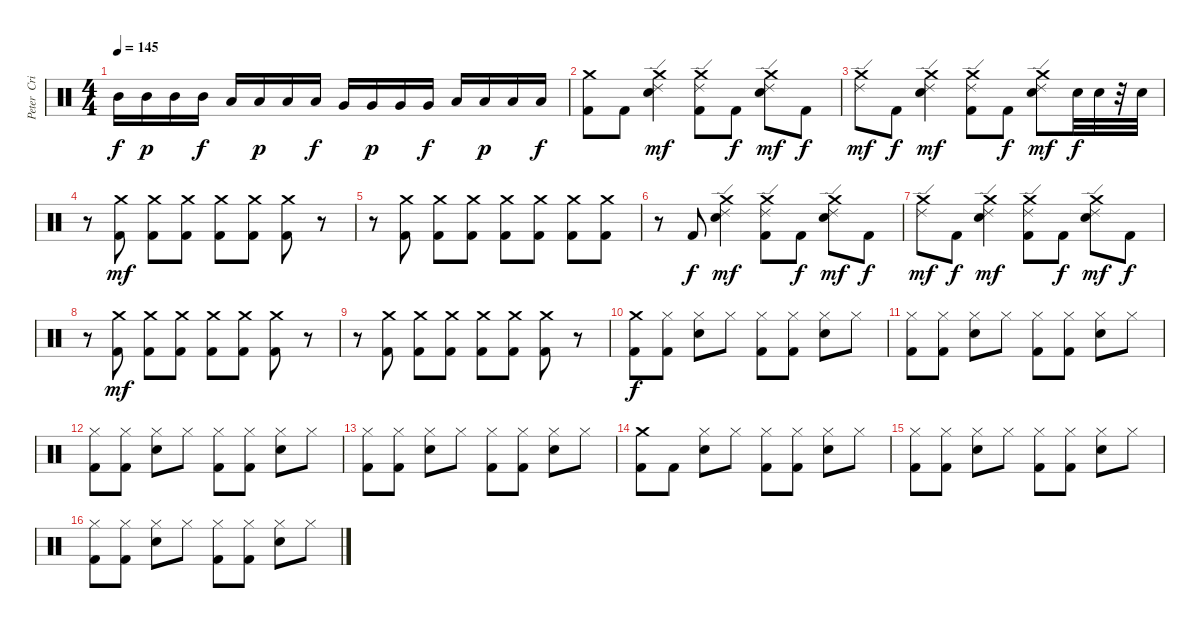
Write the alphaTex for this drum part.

\track ("Peter  Criss [Drums]" "Peter  Cri") {instrument percussion}
\staff {score}
\articulation defaults
\ts (4 4)
\tempo 145
\clef neutral
\ks c "Mid Tom (hit)".16{dy f} "Mid Tom (hit)".16{dy p} "Mid Tom (hit)".16 "Mid Tom (hit)".16{dy f} "Low Tom (hit)".16 "Low Tom (hit)".16{dy p} "Low Tom (hit)".16 "Low Tom (hit)".16{dy f} "Very Low Tom (hit)".16 "Very Low Tom (hit)".16{dy p} "Very Low Tom (hit)".16 "Very Low Tom (hit)".16{dy f} "Low Floor Tom (hit)".16 "Low Floor Tom (hit)".16{dy p} "Low Floor Tom (hit)".16 "Low Floor Tom (hit)".16{dy f}
|
("Crash medium (hit)" "Kick (hit) 2").8 "Kick (hit) 2".8 ("Ride (edge) 2" "Crash medium (hit)" "Electric Snare (hit)").4{dy mf} ("Ride (edge) 2" "Crash medium (hit)" "Kick (hit) 2").8 "Kick (hit) 2".8{dy f} ("Ride (edge) 2" "Crash medium (hit)" "Electric Snare (hit)").8{dy mf} "Kick (hit) 2".8{dy f} |
("Ride (edge) 2" "Crash medium (hit)").8{dy mf} "Kick (hit) 2".8{dy f} ("Ride (edge) 2" "Crash medium (hit)" "Electric Snare (hit)").4{dy mf} ("Ride (edge) 2" "Crash medium (hit)" "Kick (hit) 2").8 "Kick (hit) 2".8{dy f} ("Ride (edge) 2" "Crash medium (hit)" "Electric Snare (hit)").8{dy mf} "Electric Snare (hit)".32{dy f} "Electric Snare (hit)".32 r.32 "Electric Snare (hit)".32 |
r.8 ("Crash medium (hit)" "Kick (hit) 2").8{dy mf} ("Crash medium (hit)" "Kick (hit) 2").8 ("Crash medium (hit)" "Kick (hit) 2").8 ("Crash medium (hit)" "Kick (hit) 2").8 ("Crash medium (hit)" "Kick (hit) 2").8 ("Crash medium (hit)" "Kick (hit) 2").8 r.8 |
r.8 ("Crash medium (hit)" "Kick (hit) 2").8 ("Crash medium (hit)" "Kick (hit) 2").8 ("Crash medium (hit)" "Kick (hit) 2").8 ("Crash medium (hit)" "Kick (hit) 2").8 ("Crash medium (hit)" "Kick (hit) 2").8 ("Crash medium (hit)" "Kick (hit) 2").8 ("Crash medium (hit)" "Kick (hit) 2").8 |
r.8 "Kick (hit) 2".8{dy f} ("Ride (edge) 2" "Crash medium (hit)" "Electric Snare (hit)").4{dy mf} ("Ride (edge) 2" "Crash medium (hit)" "Kick (hit) 2").8 "Kick (hit) 2".8{dy f} ("Ride (edge) 2" "Crash medium (hit)" "Electric Snare (hit)").8{dy mf} "Kick (hit) 2".8{dy f} |
("Ride (edge) 2" "Crash medium (hit)").8{dy mf} "Kick (hit) 2".8{dy f} ("Ride (edge) 2" "Crash medium (hit)" "Electric Snare (hit)").4{dy mf} ("Ride (edge) 2" "Crash medium (hit)" "Kick (hit) 2").8 "Kick (hit) 2".8{dy f} ("Ride (edge) 2" "Crash medium (hit)" "Electric Snare (hit)").8{dy mf} "Kick (hit) 2".8{dy f} |
r.8 ("Crash medium (hit)" "Kick (hit) 2").8{dy mf} ("Crash medium (hit)" "Kick (hit) 2").8 ("Crash medium (hit)" "Kick (hit) 2").8 ("Crash medium (hit)" "Kick (hit) 2").8 ("Crash medium (hit)" "Kick (hit) 2").8 ("Crash medium (hit)" "Kick (hit) 2").8 r.8 |
r.8 ("Crash medium (hit)" "Kick (hit) 2").8 ("Crash medium (hit)" "Kick (hit) 2").8 ("Crash medium (hit)" "Kick (hit) 2").8 ("Crash medium (hit)" "Kick (hit) 2").8 ("Crash medium (hit)" "Kick (hit) 2").8 ("Crash medium (hit)" "Kick (hit) 2").8 r.8 |
("Crash medium (hit)" "Kick (hit) 2").8{dy f} ("Hi-Hat (closed)" "Kick (hit) 2").8 ("Hi-Hat (closed)" "Electric Snare (hit)").8 "Hi-Hat (closed)".8 ("Hi-Hat (closed)" "Kick (hit) 2").8 ("Hi-Hat (closed)" "Kick (hit) 2").8 ("Hi-Hat (closed)" "Electric Snare (hit)").8 "Hi-Hat (closed)".8 |
("Hi-Hat (closed)" "Kick (hit) 2").8 ("Hi-Hat (closed)" "Kick (hit) 2").8 ("Hi-Hat (closed)" "Electric Snare (hit)").8 "Hi-Hat (closed)".8 ("Hi-Hat (closed)" "Kick (hit) 2").8 ("Hi-Hat (closed)" "Kick (hit) 2").8 ("Hi-Hat (closed)" "Electric Snare (hit)").8 "Hi-Hat (closed)".8 |
("Hi-Hat (closed)" "Kick (hit) 2").8 ("Hi-Hat (closed)" "Kick (hit) 2").8 ("Hi-Hat (closed)" "Electric Snare (hit)").8 "Hi-Hat (closed)".8 ("Hi-Hat (closed)" "Kick (hit) 2").8 ("Hi-Hat (closed)" "Kick (hit) 2").8 ("Hi-Hat (closed)" "Electric Snare (hit)").8 "Hi-Hat (closed)".8 |
("Hi-Hat (closed)" "Kick (hit) 2").8 ("Hi-Hat (closed)" "Kick (hit) 2").8 ("Hi-Hat (closed)" "Electric Snare (hit)").8 "Hi-Hat (closed)".8 ("Hi-Hat (closed)" "Kick (hit) 2").8 ("Hi-Hat (closed)" "Kick (hit) 2").8 ("Hi-Hat (closed)" "Electric Snare (hit)").8 "Hi-Hat (closed)".8 |
("Crash medium (hit)" "Kick (hit) 2").8 "Kick (hit) 2".8 ("Hi-Hat (closed)" "Electric Snare (hit)").8 "Hi-Hat (closed)".8 ("Hi-Hat (closed)" "Kick (hit) 2").8 ("Hi-Hat (closed)" "Kick (hit) 2").8 ("Hi-Hat (closed)" "Electric Snare (hit)").8 "Hi-Hat (closed)".8 |
("Hi-Hat (closed)" "Kick (hit) 2").8 ("Hi-Hat (closed)" "Kick (hit) 2").8 ("Hi-Hat (closed)" "Electric Snare (hit)").8 "Hi-Hat (closed)".8 ("Hi-Hat (closed)" "Kick (hit) 2").8 ("Hi-Hat (closed)" "Kick (hit) 2").8 ("Hi-Hat (closed)" "Electric Snare (hit)").8 "Hi-Hat (closed)".8 |
("Hi-Hat (closed)" "Kick (hit) 2").8 ("Hi-Hat (closed)" "Kick (hit) 2").8 ("Hi-Hat (closed)" "Electric Snare (hit)").8 "Hi-Hat (closed)".8 ("Hi-Hat (closed)" "Kick (hit) 2").8 ("Hi-Hat (closed)" "Kick (hit) 2").8 ("Hi-Hat (closed)" "Electric Snare (hit)").8 "Hi-Hat (closed)".8
